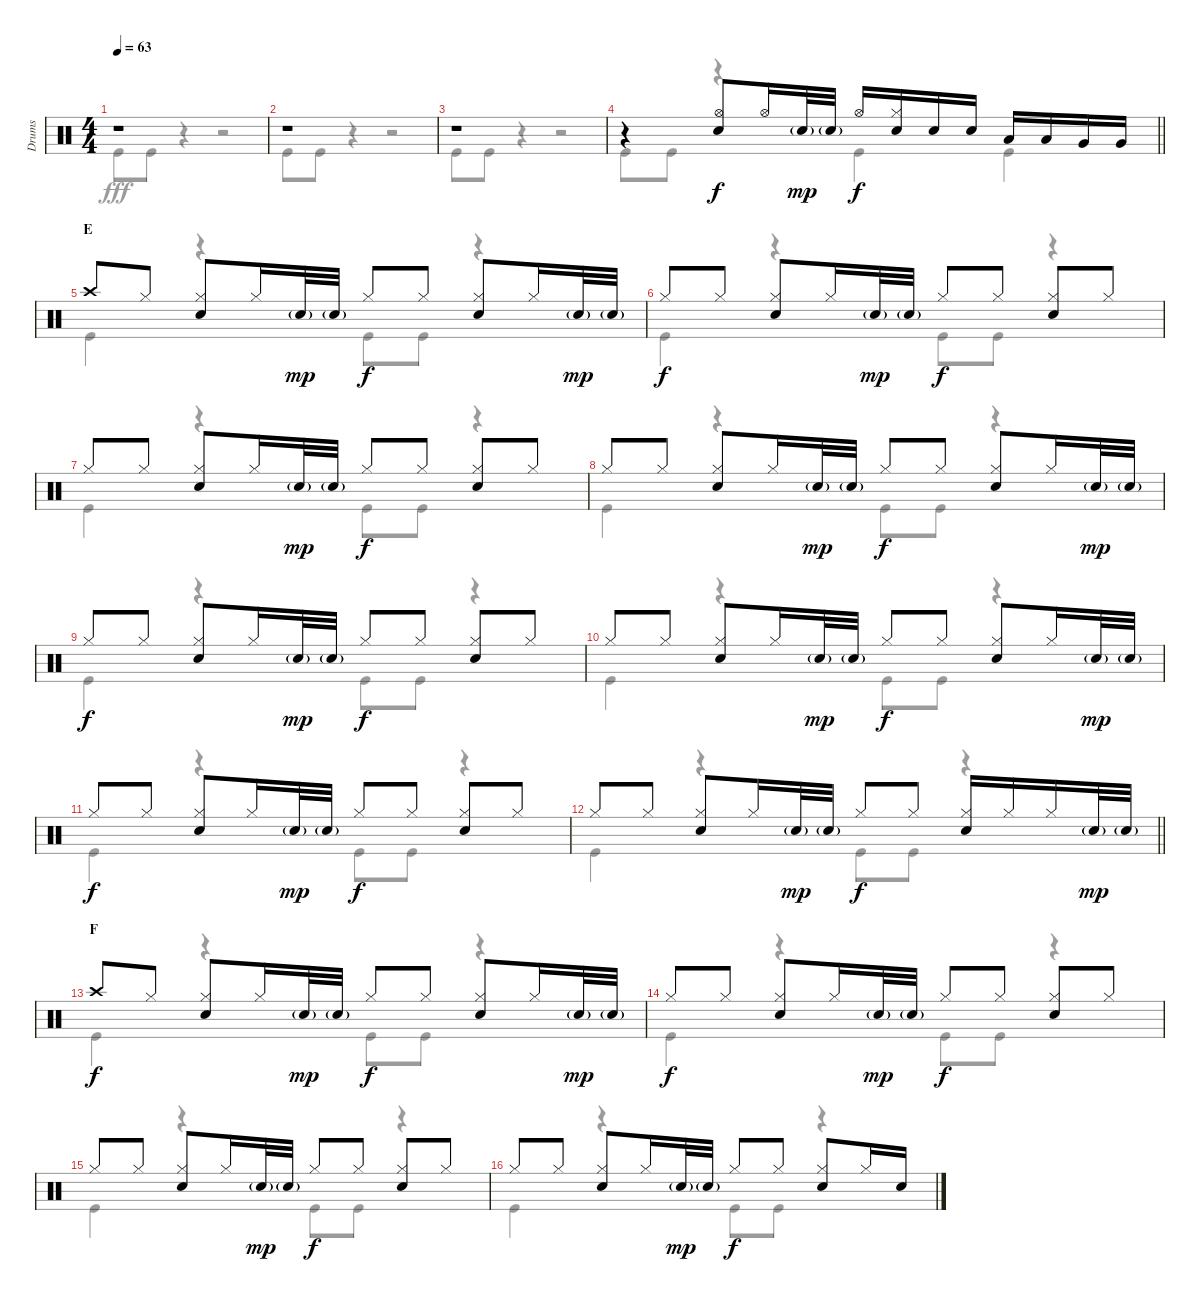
\track ("Drums" "Drums") {instrument percussion}
\staff {score}
\articulation defaults
\voice
\ts (4 4)
\tempo 63
\clef neutral
\ks c
r.1{dy f} |
r.1 |
r.1 |
\barLineRight lightlight
r.4 ("Hi-Hat (open)" "Snare (hit) 2").8 "Hi-Hat (open)".16 "Snare (hit) 2"{g}.32{dy mp} "Snare (hit) 2"{g}.32 "Hi-Hat (open)".16{dy f} ("Hi-Hat (closed)" "Snare (hit) 2").16 "Snare (hit) 2".16 "Snare (hit) 2".16 "Low Tom (hit)".16 "Low Tom (hit)".16 "Very Low Tom (hit)".16 "Very Low Tom (hit)".16 |
\section ("" "E")
"Crash high (hit)".8 "Hi-Hat (closed)".8 ("Hi-Hat (closed)" "Snare (hit) 2").8 "Hi-Hat (closed)".16 "Snare (hit) 2"{g}.32{dy mp} "Snare (hit) 2"{g}.32 "Hi-Hat (closed)".8{dy f} "Hi-Hat (closed)".8 ("Hi-Hat (closed)" "Snare (hit) 2").8 "Hi-Hat (closed)".16 "Snare (hit) 2"{g}.32{dy mp} "Snare (hit) 2"{g}.32 |
"Hi-Hat (closed)".8{dy f} "Hi-Hat (closed)".8 ("Hi-Hat (closed)" "Snare (hit) 2").8 "Hi-Hat (closed)".16 "Snare (hit) 2"{g}.32{dy mp} "Snare (hit) 2"{g}.32 "Hi-Hat (closed)".8{dy f} "Hi-Hat (closed)".8 ("Hi-Hat (closed)" "Snare (hit) 2").8 "Hi-Hat (closed)".8 |
"Hi-Hat (closed)".8 "Hi-Hat (closed)".8 ("Hi-Hat (closed)" "Snare (hit) 2").8 "Hi-Hat (closed)".16 "Snare (hit) 2"{g}.32{dy mp} "Snare (hit) 2"{g}.32 "Hi-Hat (closed)".8{dy f} "Hi-Hat (closed)".8 ("Hi-Hat (closed)" "Snare (hit) 2").8 "Hi-Hat (closed)".8 |
"Hi-Hat (closed)".8 "Hi-Hat (closed)".8 ("Hi-Hat (closed)" "Snare (hit) 2").8 "Hi-Hat (closed)".16 "Snare (hit) 2"{g}.32{dy mp} "Snare (hit) 2"{g}.32 "Hi-Hat (closed)".8{dy f} "Hi-Hat (closed)".8 ("Hi-Hat (closed)" "Snare (hit) 2").8 "Hi-Hat (closed)".16 "Snare (hit) 2"{g}.32{dy mp} "Snare (hit) 2"{g}.32 |
"Hi-Hat (closed)".8{dy f} "Hi-Hat (closed)".8 ("Hi-Hat (closed)" "Snare (hit) 2").8 "Hi-Hat (closed)".16 "Snare (hit) 2"{g}.32{dy mp} "Snare (hit) 2"{g}.32 "Hi-Hat (closed)".8{dy f} "Hi-Hat (closed)".8 ("Hi-Hat (closed)" "Snare (hit) 2").8 "Hi-Hat (closed)".8 |
"Hi-Hat (closed)".8 "Hi-Hat (closed)".8 ("Hi-Hat (closed)" "Snare (hit) 2").8 "Hi-Hat (closed)".16 "Snare (hit) 2"{g}.32{dy mp} "Snare (hit) 2"{g}.32 "Hi-Hat (closed)".8{dy f} "Hi-Hat (closed)".8 ("Hi-Hat (closed)" "Snare (hit) 2").8 "Hi-Hat (closed)".16 "Snare (hit) 2"{g}.32{dy mp} "Snare (hit) 2"{g}.32 |
"Hi-Hat (closed)".8{dy f} "Hi-Hat (closed)".8 ("Hi-Hat (closed)" "Snare (hit) 2").8 "Hi-Hat (closed)".16 "Snare (hit) 2"{g}.32{dy mp} "Snare (hit) 2"{g}.32 "Hi-Hat (closed)".8{dy f} "Hi-Hat (closed)".8 ("Hi-Hat (closed)" "Snare (hit) 2").8 "Hi-Hat (closed)".8 |
\barLineRight lightlight "Hi-Hat (closed)".8 "Hi-Hat (closed)".8
("Hi-Hat (closed)" "Snare (hit) 2").8 "Hi-Hat (closed)".16 "Snare (hit) 2"{g}.32{dy mp} "Snare (hit) 2"{g}.32 "Hi-Hat (closed)".8{dy f} "Hi-Hat (closed)".8 ("Hi-Hat (closed)" "Snare (hit) 2").16 "Hi-Hat (closed)".16 "Hi-Hat (closed)".16 "Snare (hit) 2"{g}.32{dy mp} "Snare (hit) 2"{g}.32 |
\section ("" "F")
"Crash high (hit)".8{dy f} "Hi-Hat (closed)".8 ("Hi-Hat (closed)" "Snare (hit) 2").8 "Hi-Hat (closed)".16 "Snare (hit) 2"{g}.32{dy mp} "Snare (hit) 2"{g}.32 "Hi-Hat (closed)".8{dy f} "Hi-Hat (closed)".8 ("Hi-Hat (closed)" "Snare (hit) 2").8 "Hi-Hat (closed)".16 "Snare (hit) 2"{g}.32{dy mp} "Snare (hit) 2"{g}.32 |
"Hi-Hat (closed)".8{dy f} "Hi-Hat (closed)".8 ("Hi-Hat (closed)" "Snare (hit) 2").8 "Hi-Hat (closed)".16 "Snare (hit) 2"{g}.32{dy mp} "Snare (hit) 2"{g}.32 "Hi-Hat (closed)".8{dy f} "Hi-Hat (closed)".8 ("Hi-Hat (closed)" "Snare (hit) 2").8 "Hi-Hat (closed)".8 |
"Hi-Hat (closed)".8 "Hi-Hat (closed)".8 ("Hi-Hat (closed)" "Snare (hit) 2").8 "Hi-Hat (closed)".16 "Snare (hit) 2"{g}.32{dy mp} "Snare (hit) 2"{g}.32 "Hi-Hat (closed)".8{dy f} "Hi-Hat (closed)".8 ("Hi-Hat (closed)" "Snare (hit) 2").8 "Hi-Hat (closed)".8 |
"Hi-Hat (closed)".8 "Hi-Hat (closed)".8 ("Hi-Hat (closed)" "Snare (hit) 2").8 "Hi-Hat (closed)".16 "Snare (hit) 2"{g}.32{dy mp} "Snare (hit) 2"{g}.32 "Hi-Hat (closed)".8{dy f} "Hi-Hat (closed)".8 ("Hi-Hat (closed)" "Snare (hit) 2").8 "Hi-Hat (closed)".16 "Snare (hit) 2".16
\voice
\clef neutral
\ottava regular
\simile none
\ks c "Kick (hit)".8{dy fff} "Kick (hit)".8
r.4 r.2 |
"Kick (hit)".8 "Kick (hit)".8 r.4 r.2 |
"Kick (hit)".8 "Kick (hit)".8 r.4 r.2 |
\barLineRight lightlight "Kick (hit)".8 "Kick (hit)".8
r.4 "Kick (hit)".4 "Kick (hit)".4 |
"Kick (hit)".4 r.4 "Kick (hit)".8 "Kick (hit)".8 r.4 |
"Kick (hit)".4 r.4 "Kick (hit)".8 "Kick (hit)".8 r.4 |
"Kick (hit)".4 r.4 "Kick (hit)".8 "Kick (hit)".8 r.4 |
"Kick (hit)".4 r.4 "Kick (hit)".8 "Kick (hit)".8 r.4 |
"Kick (hit)".4 r.4 "Kick (hit)".8 "Kick (hit)".8 r.4 |
"Kick (hit)".4 r.4 "Kick (hit)".8 "Kick (hit)".8 r.4 |
"Kick (hit)".4 r.4 "Kick (hit)".8 "Kick (hit)".8 r.4 |
\barLineRight lightlight "Kick (hit)".4
r.4 "Kick (hit)".8 "Kick (hit)".8 r.4 |
"Kick (hit)".4 r.4 "Kick (hit)".8 "Kick (hit)".8 r.4 |
"Kick (hit)".4 r.4 "Kick (hit)".8 "Kick (hit)".8 r.4 |
"Kick (hit)".4 r.4 "Kick (hit)".8 "Kick (hit)".8 r.4 |
"Kick (hit)".4 r.4 "Kick (hit)".8 "Kick (hit)".8 r.4
